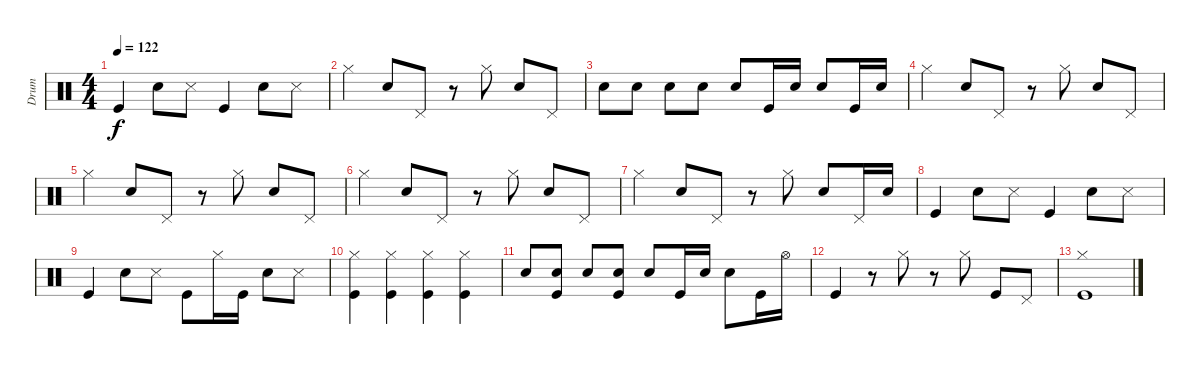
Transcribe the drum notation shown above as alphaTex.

\track ("Drum" "Drum") {instrument percussion}
\staff {score}
\articulation defaults
\ts (4 4)
\tempo 122
\clef neutral
\ks c "Kick (hit)".4{dy f} "Snare (hit) 2".8 "Snare (side stick) 3".8 "Kick (hit)".4 "Snare (hit) 2".8 "Snare (side stick) 3".8
|
"Hi-Hat (closed)".4 "Snare (hit) 2".8 "Pedal Hi-Hat (hit)".8 r.8 "Hi-Hat (closed)".8 "Snare (hit) 2".8 "Pedal Hi-Hat (hit)".8 |
"Snare (hit) 2".8 "Snare (hit) 2".8 "Snare (hit) 2".8 "Snare (hit) 2".8 "Snare (hit) 2".8 "Kick (hit)".16 "Snare (hit) 2".16 "Snare (hit) 2".8 "Kick (hit)".16 "Snare (hit) 2".16 |
"Hi-Hat (closed)".4 "Snare (hit) 2".8 "Pedal Hi-Hat (hit)".8 r.8 "Hi-Hat (closed)".8 "Snare (hit) 2".8 "Pedal Hi-Hat (hit)".8 |
"Hi-Hat (closed)".4 "Snare (hit) 2".8 "Pedal Hi-Hat (hit)".8 r.8 "Hi-Hat (closed)".8 "Snare (hit) 2".8 "Pedal Hi-Hat (hit)".8 |
"Hi-Hat (closed)".4 "Snare (hit) 2".8 "Pedal Hi-Hat (hit)".8 r.8 "Hi-Hat (closed)".8 "Snare (hit) 2".8 "Pedal Hi-Hat (hit)".8 |
"Hi-Hat (closed)".4 "Snare (hit) 2".8 "Pedal Hi-Hat (hit)".8 r.8 "Hi-Hat (closed)".8 "Snare (hit) 2".8 "Pedal Hi-Hat (hit)".16 "Snare (hit) 2".16 |
"Kick (hit)".4 "Snare (hit) 2".8 "Snare (side stick) 3".8 "Kick (hit)".4 "Snare (hit) 2".8 "Snare (side stick) 3".8 |
"Kick (hit)".4 "Snare (hit) 2".8 "Snare (side stick) 3".8 "Kick (hit)".8 "Hi-Hat (closed)".16 "Kick (hit)".16 "Snare (hit) 2".8 "Snare (side stick) 3".8 |
("Hi-Hat (closed)" "Kick (hit)").4 ("Hi-Hat (closed)" "Kick (hit)").4 ("Hi-Hat (closed)" "Kick (hit)").4 ("Hi-Hat (closed)" "Kick (hit)").4 |
"Snare (hit) 2".8 ("Snare (hit) 2" "Kick (hit)").8 "Snare (hit) 2".8 ("Snare (hit) 2" "Kick (hit)").8 "Snare (hit) 2".8 "Kick (hit)".16 "Snare (hit) 2".16 "Snare (hit) 2".8 "Kick (hit)".16 "Hi-Hat (open)".16 |
"Kick (hit)".4 r.8 "Hi-Hat (closed)".8 r.8 "Hi-Hat (closed)".8 "Kick (hit)".8 "Pedal Hi-Hat (hit)".8 |
("Hi-Hat (closed)" "Kick (hit)").1
